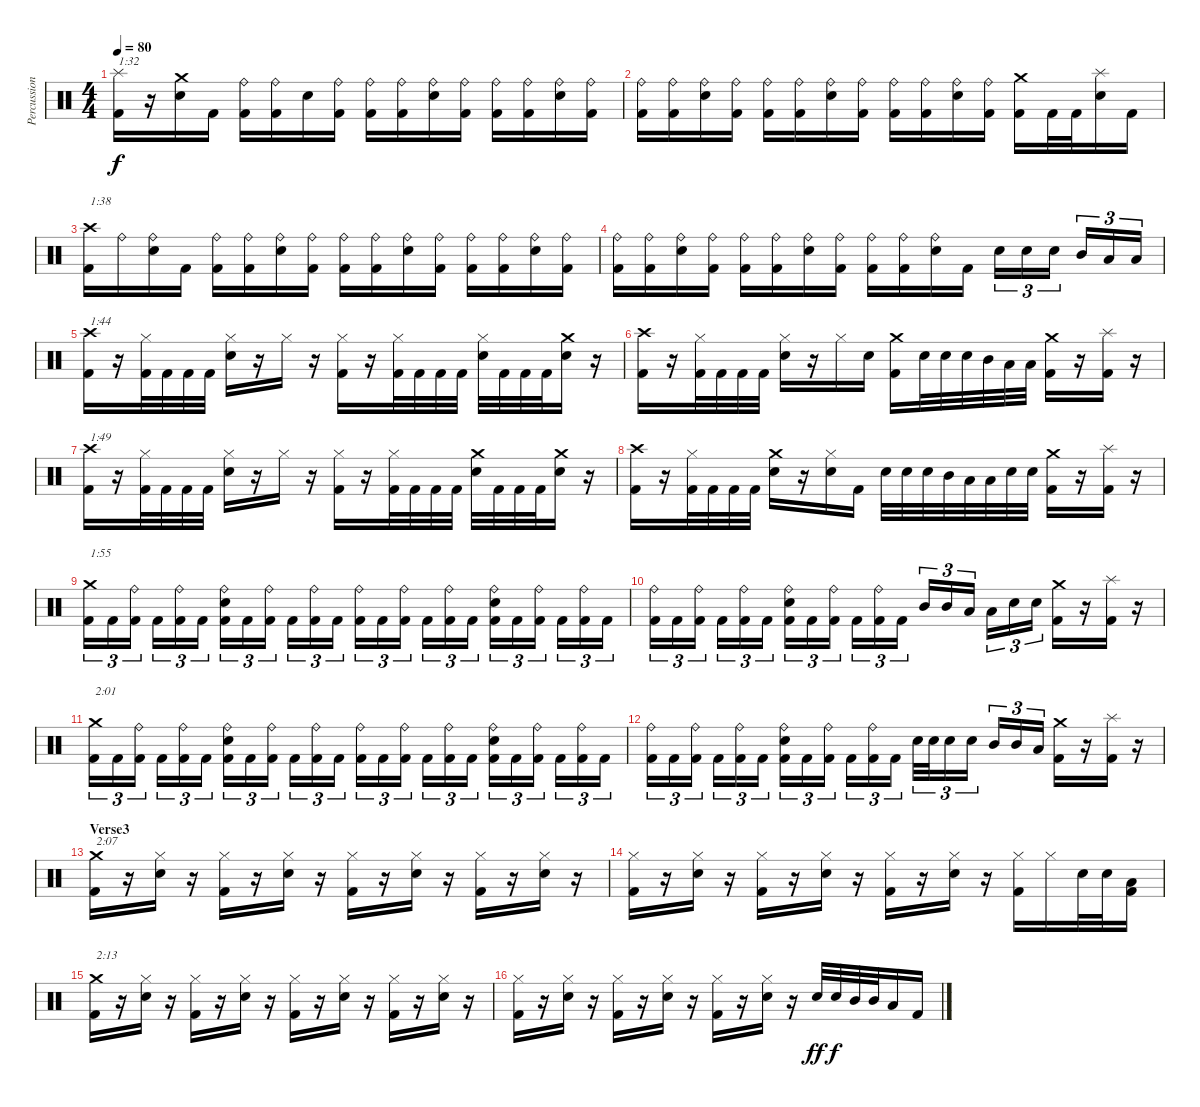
\track ("Percussion" "Percussion") {instrument percussion}
\staff {score}
\articulation defaults
\ts (4 4)
\tempo 80
\clef neutral
\ks c
("Splash (hit)" "Kick (hit) 2").16{txt "1:32" dy f} r.16 ("Crash medium (hit)" "Snare (hit) 2").16 "Kick (hit) 2".16 ("Ride (bell)" "Kick (hit) 2").16 ("Ride (bell)" "Kick (hit) 2").16 "Snare (hit) 2".16 ("Ride (bell)" "Kick (hit) 2").16 ("Ride (bell)" "Kick (hit) 2").16 ("Ride (bell)" "Kick (hit) 2").16 ("Ride (bell)" "Snare (hit) 2").16 ("Ride (bell)" "Kick (hit) 2").16 ("Ride (bell)" "Kick (hit) 2").16 ("Ride (bell)" "Kick (hit) 2").16 ("Ride (bell)" "Snare (hit) 2").16 ("Ride (bell)" "Kick (hit) 2").16 |
("Ride (bell)" "Kick (hit) 2").16 ("Ride (bell)" "Kick (hit) 2").16 ("Ride (bell)" "Snare (hit) 2").16 ("Ride (bell)" "Kick (hit) 2").16 ("Ride (bell)" "Kick (hit) 2").16 ("Ride (bell)" "Kick (hit) 2").16 ("Ride (bell)" "Snare (hit) 2").16 ("Ride (bell)" "Kick (hit) 2").16 ("Ride (bell)" "Kick (hit) 2").16 ("Ride (bell)" "Kick (hit) 2").16 ("Ride (bell)" "Snare (hit) 2").16 ("Ride (bell)" "Kick (hit) 2").16 ("Crash medium (hit)" "Kick (hit) 2").16 "Kick (hit) 2".32 "Kick (hit) 2".32 ("Splash (hit)" "Snare (hit) 2").16 "Kick (hit) 2".16 |
("Crash high (hit)" "Kick (hit) 2").16{txt "1:38"} "Ride (bell)".16 ("Ride (bell)" "Snare (hit) 2").16 "Kick (hit) 2".16 ("Ride (bell)" "Kick (hit) 2").16 ("Ride (bell)" "Kick (hit) 2").16 ("Ride (bell)" "Snare (hit) 2").16 ("Ride (bell)" "Kick (hit) 2").16 ("Ride (bell)" "Kick (hit) 2").16 ("Ride (bell)" "Kick (hit) 2").16 ("Ride (bell)" "Snare (hit) 2").16 ("Ride (bell)" "Kick (hit) 2").16 ("Ride (bell)" "Kick (hit) 2").16 ("Ride (bell)" "Kick (hit) 2").16 ("Ride (bell)" "Snare (hit) 2").16 ("Ride (bell)" "Kick (hit) 2").16 |
("Ride (bell)" "Kick (hit) 2").16 ("Ride (bell)" "Kick (hit) 2").16 ("Ride (bell)" "Snare (hit) 2").16 ("Ride (bell)" "Kick (hit) 2").16 ("Ride (bell)" "Kick (hit) 2").16 ("Ride (bell)" "Kick (hit) 2").16 ("Ride (bell)" "Snare (hit) 2").16 ("Ride (bell)" "Kick (hit) 2").16 ("Ride (bell)" "Kick (hit) 2").16 ("Ride (bell)" "Kick (hit) 2").16 ("Ride (bell)" "Snare (hit) 2").16 "Kick (hit) 2".16 "Snare (hit) 2".16{tu (3 2)} "Snare (hit) 2".16{tu (3 2)} "Snare (hit) 2".16{tu (3 2)} "Mid Tom (hit)".16{tu (3 2)} "Low Tom (hit)".16{tu (3 2)} "Low Tom (hit)".16{tu (3 2)} |
("Crash high (hit)" "Kick (hit) 2").16{txt "1:44"} r.16 ("Hi-Hat (closed)" "Kick (hit) 2").32 "Kick (hit) 2".32 "Kick (hit) 2".32 "Kick (hit) 2".32 ("Hi-Hat (closed)" "Snare (hit) 2").16 r.16 "Hi-Hat (closed)".16 r.16 ("Hi-Hat (closed)" "Kick (hit) 2").16 r.16 ("Hi-Hat (closed)" "Kick (hit) 2").32 "Kick (hit) 2".32 "Kick (hit) 2".32 "Kick (hit) 2".32 ("Hi-Hat (closed)" "Snare (hit) 2").32 "Kick (hit) 2".32 "Kick (hit) 2".32 "Kick (hit) 2".32 ("Crash medium (hit)" "Snare (hit) 2").16 r.16 |
("Crash high (hit)" "Kick (hit) 2").16 r.16 ("Hi-Hat (closed)" "Kick (hit) 2").32 "Kick (hit) 2".32 "Kick (hit) 2".32 "Kick (hit) 2".32 ("Hi-Hat (closed)" "Snare (hit) 2").16 r.16 "Hi-Hat (closed)".16 "Snare (hit) 2".16 ("Crash medium (hit)" "Kick (hit) 2").16 "Snare (hit) 2".32 "Snare (hit) 2".32 "Snare (hit) 2".32 "Mid Tom (hit)".32 "Low Tom (hit)".32 "Low Tom (hit)".32 ("Crash medium (hit)" "Kick (hit) 2").16 r.16 ("Splash (hit)" "Kick (hit) 2").16 r.16 |
("Crash high (hit)" "Kick (hit) 2").16{txt "1:49"} r.16 ("Hi-Hat (closed)" "Kick (hit) 2").32 "Kick (hit) 2".32 "Kick (hit) 2".32 "Kick (hit) 2".32 ("Hi-Hat (closed)" "Snare (hit) 2").16 r.16 "Hi-Hat (closed)".16 r.16 ("Hi-Hat (closed)" "Kick (hit) 2").16 r.16 ("Hi-Hat (closed)" "Kick (hit) 2").32 "Kick (hit) 2".32 "Kick (hit) 2".32 "Kick (hit) 2".32 ("Crash medium (hit)" "Snare (hit) 2").32 "Kick (hit) 2".32 "Kick (hit) 2".32 "Kick (hit) 2".32 ("Crash medium (hit)" "Snare (hit) 2").16 r.16 |
("Crash high (hit)" "Kick (hit) 2").16 r.16 ("Hi-Hat (closed)" "Kick (hit) 2").32 "Kick (hit) 2".32 "Kick (hit) 2".32 "Kick (hit) 2".32 ("Crash medium (hit)" "Snare (hit) 2").16 r.16 ("Hi-Hat (closed)" "Snare (hit) 2").16 "Kick (hit) 2".16 "Snare (hit) 2".32 "Snare (hit) 2".32 "Snare (hit) 2".32 "Mid Tom (hit)".32 "Low Tom (hit)".32 "Low Tom (hit)".32 "Snare (hit) 2".32 "Snare (hit) 2".32 ("Crash medium (hit)" "Kick (hit) 2").16 r.16 ("Splash (hit)" "Kick (hit) 2").16 r.16 |
("Crash medium (hit)" "Kick (hit) 2").16{tu (3 2) txt "1:55"} "Kick (hit) 2".16{tu (3 2)} ("Ride (bell)" "Kick (hit) 2").16{tu (3 2)} "Kick (hit) 2".16{tu (3 2)} ("Ride (bell)" "Kick (hit) 2").16{tu (3 2)} "Kick (hit) 2".16{tu (3 2)} ("Ride (bell)" "Snare (hit) 2" "Kick (hit) 2").16{tu (3 2)} "Kick (hit) 2".16{tu (3 2)} ("Ride (bell)" "Kick (hit) 2").16{tu (3 2)} "Kick (hit) 2".16{tu (3 2)} ("Ride (bell)" "Kick (hit) 2").16{tu (3 2)} "Kick (hit) 2".16{tu (3 2)} ("Ride (bell)" "Kick (hit) 2").16{tu (3 2)} "Kick (hit) 2".16{tu (3 2)} ("Ride (bell)" "Kick (hit) 2").16{tu (3 2)} "Kick (hit) 2".16{tu (3 2)} ("Ride (bell)" "Kick (hit) 2").16{tu (3 2)} "Kick (hit) 2".16{tu (3 2)} ("Ride (bell)" "Snare (hit) 2" "Kick (hit) 2").16{tu (3 2)} "Kick (hit) 2".16{tu (3 2)} ("Ride (bell)" "Kick (hit) 2").16{tu (3 2)} "Kick (hit) 2".16{tu (3 2)} ("Ride (bell)" "Kick (hit) 2").16{tu (3 2)} "Kick (hit) 2".16{tu (3 2)} |
("Ride (bell)" "Kick (hit) 2").16{tu (3 2)} "Kick (hit) 2".16{tu (3 2)} ("Ride (bell)" "Kick (hit) 2").16{tu (3 2)} "Kick (hit) 2".16{tu (3 2)} ("Ride (bell)" "Kick (hit) 2").16{tu (3 2)} "Kick (hit) 2".16{tu (3 2)} ("Ride (bell)" "Snare (hit) 2" "Kick (hit) 2").16{tu (3 2)} "Kick (hit) 2".16{tu (3 2)} ("Ride (bell)" "Kick (hit) 2").16{tu (3 2)} "Kick (hit) 2".16{tu (3 2)} ("Ride (bell)" "Kick (hit) 2").16{tu (3 2)} "Kick (hit) 2".16{tu (3 2)} "Mid Tom (hit)".16{tu (3 2)} "Mid Tom (hit)".16{tu (3 2)} "Low Tom (hit)".16{tu (3 2)} "Low Tom (hit)".16{tu (3 2)} "Snare (hit) 2".16{tu (3 2)} "Snare (hit) 2".16{tu (3 2)} ("Crash medium (hit)" "Kick (hit) 2").16 r.16 ("Splash (hit)" "Kick (hit) 2").16 r.16 |
("Crash medium (hit)" "Kick (hit) 2").16{tu (3 2) txt "2:01"} "Kick (hit) 2".16{tu (3 2)} ("Ride (bell)" "Kick (hit) 2").16{tu (3 2)} "Kick (hit) 2".16{tu (3 2)} ("Ride (bell)" "Kick (hit) 2").16{tu (3 2)} "Kick (hit) 2".16{tu (3 2)} ("Ride (bell)" "Snare (hit) 2" "Kick (hit) 2").16{tu (3 2)} "Kick (hit) 2".16{tu (3 2)} ("Ride (bell)" "Kick (hit) 2").16{tu (3 2)} "Kick (hit) 2".16{tu (3 2)} ("Ride (bell)" "Kick (hit) 2").16{tu (3 2)} "Kick (hit) 2".16{tu (3 2)} ("Ride (bell)" "Kick (hit) 2").16{tu (3 2)} "Kick (hit) 2".16{tu (3 2)} ("Ride (bell)" "Kick (hit) 2").16{tu (3 2)} "Kick (hit) 2".16{tu (3 2)} ("Ride (bell)" "Kick (hit) 2").16{tu (3 2)} "Kick (hit) 2".16{tu (3 2)} ("Ride (bell)" "Snare (hit) 2" "Kick (hit) 2").16{tu (3 2)} "Kick (hit) 2".16{tu (3 2)} ("Ride (bell)" "Kick (hit) 2").16{tu (3 2)} "Kick (hit) 2".16{tu (3 2)} ("Ride (bell)" "Kick (hit) 2").16{tu (3 2)} "Kick (hit) 2".16{tu (3 2)} |
("Ride (bell)" "Kick (hit) 2").16{tu (3 2)} "Kick (hit) 2".16{tu (3 2)} ("Ride (bell)" "Kick (hit) 2").16{tu (3 2)} "Kick (hit) 2".16{tu (3 2)} ("Ride (bell)" "Kick (hit) 2").16{tu (3 2)} "Kick (hit) 2".16{tu (3 2)} ("Ride (bell)" "Snare (hit) 2" "Kick (hit) 2").16{tu (3 2)} "Kick (hit) 2".16{tu (3 2)} ("Ride (bell)" "Kick (hit) 2").16{tu (3 2)} "Kick (hit) 2".16{tu (3 2)} ("Ride (bell)" "Kick (hit) 2").16{tu (3 2)} "Kick (hit) 2".16{tu (3 2)} "Snare (hit) 2".32{tu (3 2)} "Snare (hit) 2".32{tu (3 2)} "Snare (hit) 2".16{tu (3 2)} "Snare (hit) 2".16{tu (3 2)} "Mid Tom (hit)".16{tu (3 2)} "Mid Tom (hit)".16{tu (3 2)} "Low Tom (hit)".16{tu (3 2)} ("Crash medium (hit)" "Kick (hit) 2").16 r.16 ("Splash (hit)" "Kick (hit) 2").16 r.16 |
\section ("" "Verse3")
("Crash medium (hit)" "Kick (hit) 2").16{txt "2:07"} r.16 ("Hi-Hat (closed)" "Snare (hit) 2").16 r.16 ("Hi-Hat (closed)" "Kick (hit) 2").16 r.16 ("Hi-Hat (closed)" "Snare (hit) 2").16 r.16 ("Hi-Hat (closed)" "Kick (hit) 2").16 r.16 ("Hi-Hat (closed)" "Snare (hit) 2").16 r.16 ("Hi-Hat (closed)" "Kick (hit) 2").16 r.16 ("Hi-Hat (closed)" "Snare (hit) 2").16 r.16 |
("Hi-Hat (closed)" "Kick (hit) 2").16 r.16 ("Hi-Hat (closed)" "Snare (hit) 2").16 r.16 ("Hi-Hat (closed)" "Kick (hit) 2").16 r.16 ("Hi-Hat (closed)" "Snare (hit) 2").16 r.16 ("Hi-Hat (closed)" "Kick (hit) 2").16 r.16 ("Hi-Hat (closed)" "Snare (hit) 2").16 r.16 ("Hi-Hat (closed)" "Kick (hit) 2").16 "Hi-Hat (closed)".16 "Snare (hit) 2".32 "Snare (hit) 2".32 ("Low Tom (hit)" "Kick (hit) 2").16 |
("Crash medium (hit)" "Kick (hit) 2").16{txt "2:13"} r.16 ("Hi-Hat (closed)" "Snare (hit) 2").16 r.16 ("Hi-Hat (closed)" "Kick (hit) 2").16 r.16 ("Hi-Hat (closed)" "Snare (hit) 2").16 r.16 ("Hi-Hat (closed)" "Kick (hit) 2").16 r.16 ("Hi-Hat (closed)" "Snare (hit) 2").16 r.16 ("Hi-Hat (closed)" "Kick (hit) 2").16 r.16 ("Hi-Hat (closed)" "Snare (hit) 2").16 r.16 |
("Hi-Hat (closed)" "Kick (hit) 2").16 r.16 ("Hi-Hat (closed)" "Snare (hit) 2").16 r.16 ("Hi-Hat (closed)" "Kick (hit) 2").16 r.16 ("Hi-Hat (closed)" "Snare (hit) 2").16 r.16 ("Hi-Hat (closed)" "Kick (hit) 2").16 r.16 ("Hi-Hat (closed)" "Snare (hit) 2").16 r.16 "Snare (hit) 2".32{dy ff} "Snare (hit) 2".32{dy f} "Mid Tom (hit)".32 "Mid Tom (hit)".32 "Low Tom (hit)".16 "Kick (hit) 2".16
